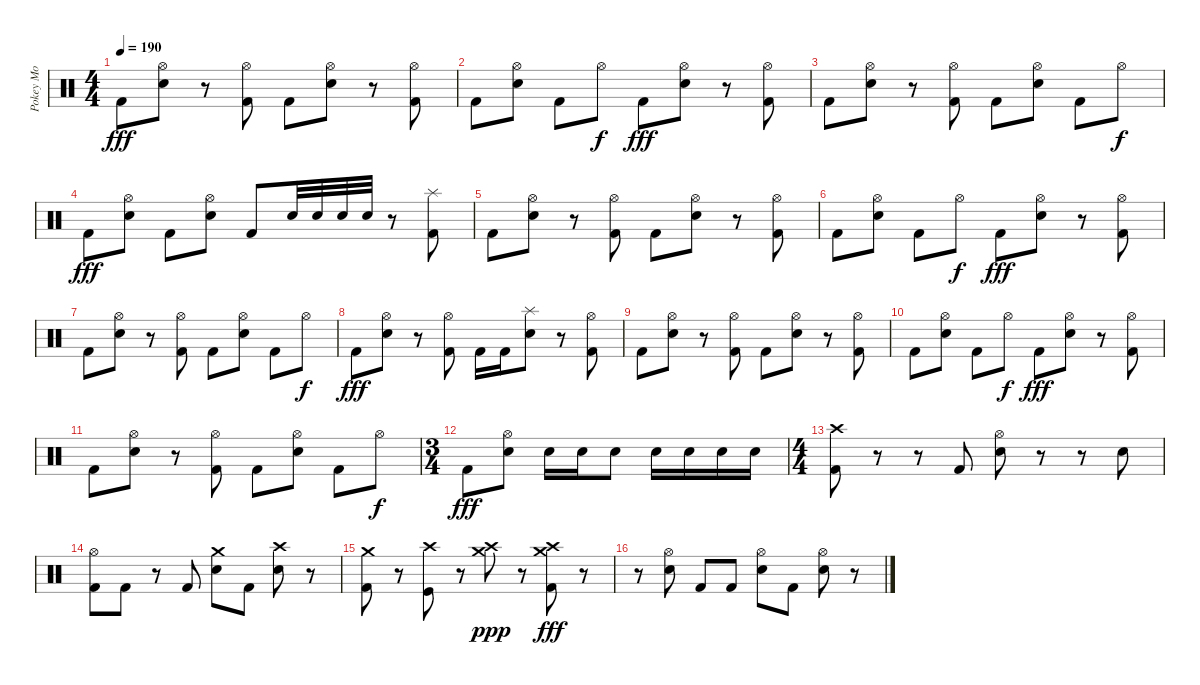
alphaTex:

\track ("Pokey Mo" "Pokey Mo") {instrument percussion}
\staff {score}
\articulation defaults
\ts (4 4)
\tempo 190
\clef neutral
\ks c "Kick (hit) 2".8{dy fff}
("Hi-Hat (open)" "Electric Snare (hit)").8 r.8 ("Hi-Hat (open)" "Kick (hit) 2").8 "Kick (hit) 2".8 ("Hi-Hat (open)" "Electric Snare (hit)").8 r.8 ("Hi-Hat (open)" "Kick (hit) 2").8 |
"Kick (hit) 2".8 ("Hi-Hat (open)" "Electric Snare (hit)").8 "Kick (hit) 2".8 "Hi-Hat (open)".8{dy f} "Kick (hit) 2".8{dy fff} ("Hi-Hat (open)" "Electric Snare (hit)").8 r.8 ("Hi-Hat (open)" "Kick (hit) 2").8 |
"Kick (hit) 2".8 ("Hi-Hat (open)" "Electric Snare (hit)").8 r.8 ("Hi-Hat (open)" "Kick (hit) 2").8 "Kick (hit) 2".8 ("Hi-Hat (open)" "Electric Snare (hit)").8 "Kick (hit) 2".8 "Hi-Hat (open)".8{dy f} |
"Kick (hit) 2".8{dy fff} ("Hi-Hat (open)" "Electric Snare (hit)").8 "Kick (hit) 2".8 ("Hi-Hat (open)" "Electric Snare (hit)").8 "Kick (hit) 2".8 "Electric Snare (hit)".32 "Electric Snare (hit)".32 "Electric Snare (hit)".32 "Electric Snare (hit)".32 r.8 ("Splash (hit)" "Kick (hit) 2").8 |
"Kick (hit) 2".8 ("Hi-Hat (open)" "Electric Snare (hit)").8 r.8 ("Hi-Hat (open)" "Kick (hit) 2").8 "Kick (hit) 2".8 ("Hi-Hat (open)" "Electric Snare (hit)").8 r.8 ("Hi-Hat (open)" "Kick (hit) 2").8 |
"Kick (hit) 2".8 ("Hi-Hat (open)" "Electric Snare (hit)").8 "Kick (hit) 2".8 "Hi-Hat (open)".8{dy f} "Kick (hit) 2".8{dy fff} ("Hi-Hat (open)" "Electric Snare (hit)").8 r.8 ("Hi-Hat (open)" "Kick (hit) 2").8 |
"Kick (hit) 2".8 ("Hi-Hat (open)" "Electric Snare (hit)").8 r.8 ("Hi-Hat (open)" "Kick (hit) 2").8 "Kick (hit) 2".8 ("Hi-Hat (open)" "Electric Snare (hit)").8 "Kick (hit) 2".8 "Hi-Hat (open)".8{dy f} |
"Kick (hit) 2".8{dy fff} ("Hi-Hat (open)" "Electric Snare (hit)").8 r.8 ("Hi-Hat (open)" "Kick (hit) 2").8 "Kick (hit) 2".16 "Kick (hit) 2".16 ("Splash (hit)" "Electric Snare (hit)").8 r.8 ("Hi-Hat (open)" "Kick (hit) 2").8 |
"Kick (hit) 2".8 ("Hi-Hat (open)" "Electric Snare (hit)").8 r.8 ("Hi-Hat (open)" "Kick (hit) 2").8 "Kick (hit) 2".8 ("Hi-Hat (open)" "Electric Snare (hit)").8 r.8 ("Hi-Hat (open)" "Kick (hit) 2").8 |
"Kick (hit) 2".8 ("Hi-Hat (open)" "Electric Snare (hit)").8 "Kick (hit) 2".8 "Hi-Hat (open)".8{dy f} "Kick (hit) 2".8{dy fff} ("Hi-Hat (open)" "Electric Snare (hit)").8 r.8 ("Hi-Hat (open)" "Kick (hit) 2").8 |
"Kick (hit) 2".8 ("Hi-Hat (open)" "Electric Snare (hit)").8 r.8 ("Hi-Hat (open)" "Kick (hit) 2").8 "Kick (hit) 2".8 ("Hi-Hat (open)" "Electric Snare (hit)").8 "Kick (hit) 2".8 "Hi-Hat (open)".8{dy f} |
\ts (3 4)
"Kick (hit) 2".8{dy fff} ("Hi-Hat (open)" "Electric Snare (hit)").8 "Electric Snare (hit)".16 "Electric Snare (hit)".16 "Electric Snare (hit)".8 "Electric Snare (hit)".16 "Electric Snare (hit)".16 "Electric Snare (hit)".16 "Electric Snare (hit)".16 |
\ts (4 4)
("Crash high (hit)" "Kick (hit) 2").8 r.8 r.8 "Kick (hit) 2".8 ("Hi-Hat (open)" "Electric Snare (hit)").8 r.8 r.8 "Electric Snare (hit)".8 |
("Hi-Hat (open)" "Kick (hit) 2").8 "Kick (hit) 2".8 r.8 "Kick (hit) 2".8 ("Crash medium (hit)" "Electric Snare (hit)").8 "Kick (hit) 2".8 ("Crash high (hit)" "Electric Snare (hit)").8 r.8 |
("Crash medium (hit)" "Kick (hit) 2").8 r.8 ("Crash high (hit)" "Kick (hit)").8 r.8 ("Crash medium (hit)" "Crash high (hit)").8{dy ppp} r.8 ("Crash medium (hit)" "Crash high (hit)" "Kick (hit) 2").8{dy fff} r.8 |
r.8 ("Hi-Hat (open)" "Electric Snare (hit)").8 "Kick (hit) 2".8 "Kick (hit) 2".8 ("Hi-Hat (open)" "Electric Snare (hit)").8 "Kick (hit) 2".8 ("Hi-Hat (open)" "Electric Snare (hit)").8 r.8
